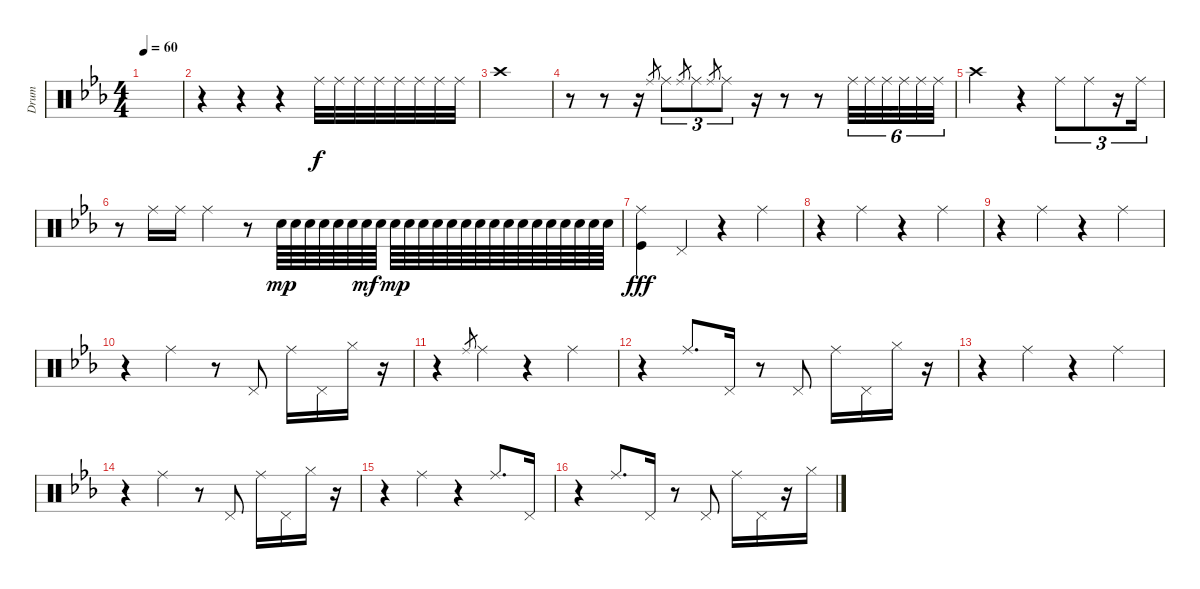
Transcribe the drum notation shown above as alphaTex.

\track ("Drum" "Drum") {instrument percussion}
\staff {score}
\articulation defaults
\ts (4 4)
\tempo 60
\clef neutral
\ks eb
|
r.4 r.4 r.4 "Ride (middle)".32{volume 6} "Ride (middle)".32 "Ride (middle)".32 "Ride (middle)".32 "Ride (middle)".32 "Ride (middle)".32 "Ride (middle)".32 "Ride (middle)".32 |
"Crash high (hit)".1 |
r.8 r.8 r.16 "Ride (middle)".8{gr} "Ride (middle)".8{tu (3 2)} "Ride (middle)".8{gr} "Ride (middle)".8{tu (3 2)} "Ride (middle)".8{gr} "Ride (middle)".8{tu (3 2)} r.16 r.8 r.8 "Ride (middle)".32{tu (6 4)} "Ride (middle)".32{tu (6 4)} "Ride (middle)".32{tu (6 4) beam splitsecondary} "Ride (middle)".32{tu (6 4)} "Ride (middle)".32{tu (6 4)} "Ride (middle)".32{tu (6 4)} |
"Crash high (hit)".2 r.4 "Ride (middle)".8{tu (3 2)} "Ride (middle)".8{tu (3 2)} r.16{tu (3 2)} "Ride (middle)".16{tu (3 2)} |
r.8 "Ride (middle)".16 "Ride (middle)".16 "Ride (middle)".4 r.8 "Snare (hit) 2".64{dy mp volume 3} "Snare (hit) 2".64 "Snare (hit) 2".64 "Snare (hit) 2".64 "Snare (hit) 2".64 "Snare (hit) 2".64 "Snare (hit) 2".64{dy mf} "Snare (hit) 2".64 "Snare (hit) 2".64{dy mp} "Snare (hit) 2".64 "Snare (hit) 2".64 "Snare (hit) 2".64 "Snare (hit) 2".64 "Snare (hit) 2".64 "Snare (hit) 2".64 "Snare (hit) 2".64 "Snare (hit) 2".64 "Snare (hit) 2".64 "Snare (hit) 2".64 "Snare (hit) 2".64 "Snare (hit) 2".64 "Snare (hit) 2".64 "Snare (hit) 2".64 "Snare (hit) 2".64 |
("Ride (middle)" "Kick (hit)").4{dy fff volume 16} "Pedal Hi-Hat (hit)".4{volume 9} r.4 "Ride (middle)".4 |
r.4 "Ride (middle)".4 r.4 "Ride (middle)".4 |
r.4 "Ride (middle)".4 r.4 "Ride (middle)".4 |
r.4 "Ride (middle)".4 r.8 "Pedal Hi-Hat (hit)".8 "Ride (middle)".16 "Pedal Hi-Hat (hit)".16 "Hi-Hat (closed)".16 r.16 |
r.4 "Ride (middle)".8{gr} "Ride (middle)".4 r.4 "Ride (middle)".4 |
r.4 "Ride (middle)".8{d} "Pedal Hi-Hat (hit)".16 r.8 "Pedal Hi-Hat (hit)".8 "Ride (middle)".16 "Pedal Hi-Hat (hit)".16 "Hi-Hat (closed)".16 r.16 |
r.4 "Ride (middle)".4 r.4 "Ride (middle)".4 |
r.4 "Ride (middle)".4 r.8 "Pedal Hi-Hat (hit)".8 "Ride (middle)".16 "Pedal Hi-Hat (hit)".16 "Hi-Hat (closed)".16 r.16 |
r.4 "Ride (middle)".4 r.4 "Ride (middle)".8{d} "Pedal Hi-Hat (hit)".16 |
r.4 "Ride (middle)".8{d} "Pedal Hi-Hat (hit)".16 r.8 "Pedal Hi-Hat (hit)".8 "Ride (middle)".16 "Pedal Hi-Hat (hit)".16 r.16 "Hi-Hat (closed)".16
